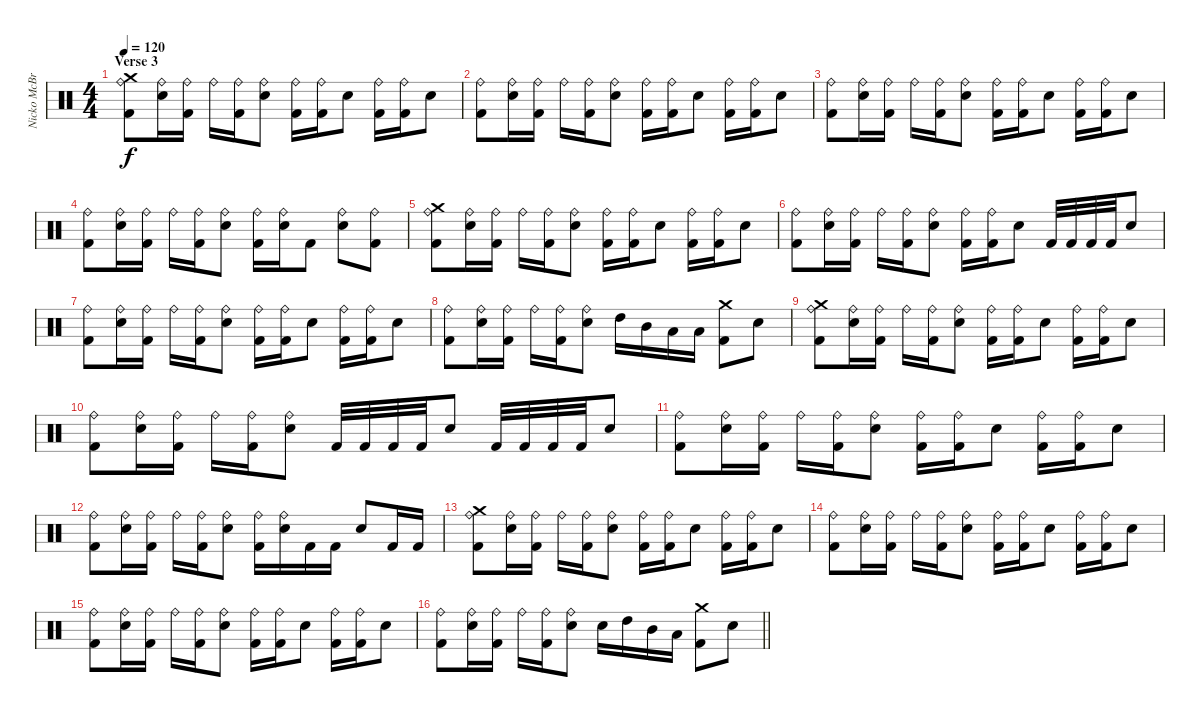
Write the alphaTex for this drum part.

\track ("Nicko McBrain" "Nicko McBr") {instrument percussion}
\staff {score}
\articulation defaults
\ts (4 4)
\section ("" "Verse 3")
\tempo 120
\clef neutral
\ks c
("Crash medium (hit)" "Kick (hit) 2" "Ride (bell)").8{dy f} ("Snare (hit) 2" "Ride (bell)").16 ("Kick (hit) 2" "Ride (bell)").16 "Ride (bell)".16 ("Kick (hit) 2" "Ride (bell)").16 ("Snare (hit) 2" "Ride (bell)").8 ("Kick (hit) 2" "Ride (bell)").16 ("Kick (hit) 2" "Ride (bell)").16 "Snare (hit) 2".8 ("Kick (hit) 2" "Ride (bell)").16 ("Kick (hit) 2" "Ride (bell)").16 "Snare (hit) 2".8 |
("Kick (hit) 2" "Ride (bell)").8 ("Snare (hit) 2" "Ride (bell)").16 ("Kick (hit) 2" "Ride (bell)").16 "Ride (bell)".16 ("Kick (hit) 2" "Ride (bell)").16 ("Snare (hit) 2" "Ride (bell)").8 ("Kick (hit) 2" "Ride (bell)").16 ("Kick (hit) 2" "Ride (bell)").16 "Snare (hit) 2".8 ("Kick (hit) 2" "Ride (bell)").16 ("Kick (hit) 2" "Ride (bell)").16 "Snare (hit) 2".8 |
("Kick (hit) 2" "Ride (bell)").8 ("Snare (hit) 2" "Ride (bell)").16 ("Kick (hit) 2" "Ride (bell)").16 "Ride (bell)".16 ("Kick (hit) 2" "Ride (bell)").16 ("Snare (hit) 2" "Ride (bell)").8 ("Kick (hit) 2" "Ride (bell)").16 ("Kick (hit) 2" "Ride (bell)").16 "Snare (hit) 2".8 ("Kick (hit) 2" "Ride (bell)").16 ("Kick (hit) 2" "Ride (bell)").16 "Snare (hit) 2".8 |
("Kick (hit) 2" "Ride (bell)").8 ("Snare (hit) 2" "Ride (bell)").16 ("Kick (hit) 2" "Ride (bell)").16 "Ride (bell)".16 ("Kick (hit) 2" "Ride (bell)").16 ("Snare (hit) 2" "Ride (bell)").8 ("Kick (hit) 2" "Ride (bell)").16 ("Snare (hit) 2" "Ride (bell)").16 "Kick (hit) 2".8 ("Snare (hit) 2" "Ride (bell)").8 ("Kick (hit) 2" "Ride (bell)").8 |
("Crash medium (hit)" "Kick (hit) 2" "Ride (bell)").8 ("Snare (hit) 2" "Ride (bell)").16 ("Kick (hit) 2" "Ride (bell)").16 "Ride (bell)".16 ("Kick (hit) 2" "Ride (bell)").16 ("Snare (hit) 2" "Ride (bell)").8 ("Kick (hit) 2" "Ride (bell)").16 ("Kick (hit) 2" "Ride (bell)").16 "Snare (hit) 2".8 ("Kick (hit) 2" "Ride (bell)").16 ("Kick (hit) 2" "Ride (bell)").16 "Snare (hit) 2".8 |
("Kick (hit) 2" "Ride (bell)").8 ("Snare (hit) 2" "Ride (bell)").16 ("Kick (hit) 2" "Ride (bell)").16 "Ride (bell)".16 ("Kick (hit) 2" "Ride (bell)").16 ("Snare (hit) 2" "Ride (bell)").8 ("Kick (hit) 2" "Ride (bell)").16 ("Kick (hit) 2" "Ride (bell)").16 "Snare (hit) 2".8 "Kick (hit) 2".32 "Kick (hit) 2".32 "Kick (hit) 2".32 "Kick (hit) 2".32 "Snare (hit) 2".8 |
("Kick (hit) 2" "Ride (bell)").8 ("Snare (hit) 2" "Ride (bell)").16 ("Kick (hit) 2" "Ride (bell)").16 "Ride (bell)".16 ("Kick (hit) 2" "Ride (bell)").16 ("Snare (hit) 2" "Ride (bell)").8 ("Kick (hit) 2" "Ride (bell)").16 ("Kick (hit) 2" "Ride (bell)").16 "Snare (hit) 2".8 ("Kick (hit) 2" "Ride (bell)").16 ("Kick (hit) 2" "Ride (bell)").16 "Snare (hit) 2".8 |
("Kick (hit) 2" "Ride (bell)").8 ("Snare (hit) 2" "Ride (bell)").16 ("Kick (hit) 2" "Ride (bell)").16 "Ride (bell)".16 ("Kick (hit) 2" "Ride (bell)").16 ("Snare (hit) 2" "Ride (bell)").8 "High Tom (hit)".16 "Mid Tom (hit)".16 "Low Tom (hit)".16 "Low Tom (hit)".16 ("Crash medium (hit)" "Kick (hit) 2").8 "Snare (hit) 2".8 |
("Crash medium (hit)" "Kick (hit) 2" "Ride (bell)").8 ("Snare (hit) 2" "Ride (bell)").16 ("Kick (hit) 2" "Ride (bell)").16 "Ride (bell)".16 ("Kick (hit) 2" "Ride (bell)").16 ("Snare (hit) 2" "Ride (bell)").8 ("Kick (hit) 2" "Ride (bell)").16 ("Kick (hit) 2" "Ride (bell)").16 "Snare (hit) 2".8 ("Kick (hit) 2" "Ride (bell)").16 ("Kick (hit) 2" "Ride (bell)").16 "Snare (hit) 2".8 |
("Kick (hit) 2" "Ride (bell)").8 ("Snare (hit) 2" "Ride (bell)").16 ("Kick (hit) 2" "Ride (bell)").16 "Ride (bell)".16 ("Kick (hit) 2" "Ride (bell)").16 ("Snare (hit) 2" "Ride (bell)").8 "Kick (hit) 2".32 "Kick (hit) 2".32 "Kick (hit) 2".32 "Kick (hit) 2".32 "Snare (hit) 2".8 "Kick (hit) 2".32 "Kick (hit) 2".32 "Kick (hit) 2".32 "Kick (hit) 2".32 "Snare (hit) 2".8 |
("Kick (hit) 2" "Ride (bell)").8 ("Snare (hit) 2" "Ride (bell)").16 ("Kick (hit) 2" "Ride (bell)").16 "Ride (bell)".16 ("Kick (hit) 2" "Ride (bell)").16 ("Snare (hit) 2" "Ride (bell)").8 ("Kick (hit) 2" "Ride (bell)").16 ("Kick (hit) 2" "Ride (bell)").16 "Snare (hit) 2".8 ("Kick (hit) 2" "Ride (bell)").16 ("Kick (hit) 2" "Ride (bell)").16 "Snare (hit) 2".8 |
("Kick (hit) 2" "Ride (bell)").8 ("Snare (hit) 2" "Ride (bell)").16 ("Kick (hit) 2" "Ride (bell)").16 "Ride (bell)".16 ("Kick (hit) 2" "Ride (bell)").16 ("Snare (hit) 2" "Ride (bell)").8 ("Kick (hit) 2" "Ride (bell)").16 ("Snare (hit) 2" "Ride (bell)").16 "Kick (hit) 2".16 "Kick (hit) 2".16 "Snare (hit) 2".8 "Kick (hit) 2".16 "Kick (hit) 2".16 |
("Crash medium (hit)" "Kick (hit) 2" "Ride (bell)").8 ("Snare (hit) 2" "Ride (bell)").16 ("Kick (hit) 2" "Ride (bell)").16 "Ride (bell)".16 ("Kick (hit) 2" "Ride (bell)").16 ("Snare (hit) 2" "Ride (bell)").8 ("Kick (hit) 2" "Ride (bell)").16 ("Kick (hit) 2" "Ride (bell)").16 "Snare (hit) 2".8 ("Kick (hit) 2" "Ride (bell)").16 ("Kick (hit) 2" "Ride (bell)").16 "Snare (hit) 2".8 |
("Kick (hit) 2" "Ride (bell)").8 ("Snare (hit) 2" "Ride (bell)").16 ("Kick (hit) 2" "Ride (bell)").16 "Ride (bell)".16 ("Kick (hit) 2" "Ride (bell)").16 ("Snare (hit) 2" "Ride (bell)").8 ("Kick (hit) 2" "Ride (bell)").16 ("Kick (hit) 2" "Ride (bell)").16 "Snare (hit) 2".8 ("Kick (hit) 2" "Ride (bell)").16 ("Kick (hit) 2" "Ride (bell)").16 "Snare (hit) 2".8 |
("Kick (hit) 2" "Ride (bell)").8 ("Snare (hit) 2" "Ride (bell)").16 ("Kick (hit) 2" "Ride (bell)").16 "Ride (bell)".16 ("Kick (hit) 2" "Ride (bell)").16 ("Snare (hit) 2" "Ride (bell)").8 ("Kick (hit) 2" "Ride (bell)").16 ("Kick (hit) 2" "Ride (bell)").16 "Snare (hit) 2".8 ("Kick (hit) 2" "Ride (bell)").16 ("Kick (hit) 2" "Ride (bell)").16 "Snare (hit) 2".8 |
\barLineRight lightlight
("Kick (hit) 2" "Ride (bell)").8 ("Snare (hit) 2" "Ride (bell)").16 ("Kick (hit) 2" "Ride (bell)").16 "Ride (bell)".16 ("Kick (hit) 2" "Ride (bell)").16 ("Snare (hit) 2" "Ride (bell)").8 "Snare (hit) 2".16 "High Tom (hit)".16 "Mid Tom (hit)".16 "Low Tom (hit)".16 ("Crash medium (hit)" "Kick (hit) 2").8 "Snare (hit) 2".8
